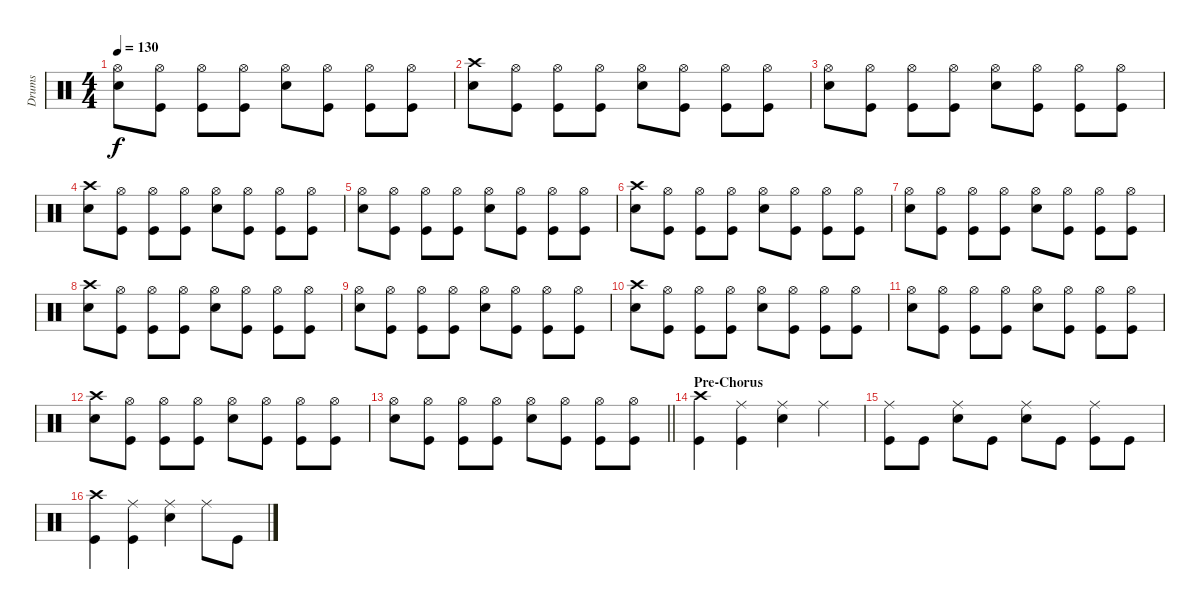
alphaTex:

\track ("Drums" "Drums") {instrument percussion}
\staff {score}
\articulation defaults
\ts (4 4)
\tempo 130
\clef neutral
\ks c
("Hi-Hat (open)" "Snare (hit) 2").8{dy f} ("Hi-Hat (open)" "Kick (hit)").8 ("Hi-Hat (open)" "Kick (hit)").8 ("Hi-Hat (open)" "Kick (hit)").8 ("Hi-Hat (open)" "Snare (hit) 2").8 ("Hi-Hat (open)" "Kick (hit)").8 ("Hi-Hat (open)" "Kick (hit)").8 ("Hi-Hat (open)" "Kick (hit)").8 |
("Crash high (hit)" "Snare (hit) 2").8 ("Hi-Hat (open)" "Kick (hit)").8 ("Hi-Hat (open)" "Kick (hit)").8 ("Hi-Hat (open)" "Kick (hit)").8 ("Hi-Hat (open)" "Snare (hit) 2").8 ("Hi-Hat (open)" "Kick (hit)").8 ("Hi-Hat (open)" "Kick (hit)").8 ("Hi-Hat (open)" "Kick (hit)").8 |
("Hi-Hat (open)" "Snare (hit) 2").8 ("Hi-Hat (open)" "Kick (hit)").8 ("Hi-Hat (open)" "Kick (hit)").8 ("Hi-Hat (open)" "Kick (hit)").8 ("Hi-Hat (open)" "Snare (hit) 2").8 ("Hi-Hat (open)" "Kick (hit)").8 ("Hi-Hat (open)" "Kick (hit)").8 ("Hi-Hat (open)" "Kick (hit)").8 |
("Crash high (hit)" "Snare (hit) 2").8 ("Hi-Hat (open)" "Kick (hit)").8 ("Hi-Hat (open)" "Kick (hit)").8 ("Hi-Hat (open)" "Kick (hit)").8 ("Hi-Hat (open)" "Snare (hit) 2").8 ("Hi-Hat (open)" "Kick (hit)").8 ("Hi-Hat (open)" "Kick (hit)").8 ("Hi-Hat (open)" "Kick (hit)").8 |
("Hi-Hat (open)" "Snare (hit) 2").8 ("Hi-Hat (open)" "Kick (hit)").8 ("Hi-Hat (open)" "Kick (hit)").8 ("Hi-Hat (open)" "Kick (hit)").8 ("Hi-Hat (open)" "Snare (hit) 2").8 ("Hi-Hat (open)" "Kick (hit)").8 ("Hi-Hat (open)" "Kick (hit)").8 ("Hi-Hat (open)" "Kick (hit)").8 |
("Crash high (hit)" "Snare (hit) 2").8 ("Hi-Hat (open)" "Kick (hit)").8 ("Hi-Hat (open)" "Kick (hit)").8 ("Hi-Hat (open)" "Kick (hit)").8 ("Hi-Hat (open)" "Snare (hit) 2").8 ("Hi-Hat (open)" "Kick (hit)").8 ("Hi-Hat (open)" "Kick (hit)").8 ("Hi-Hat (open)" "Kick (hit)").8 |
("Hi-Hat (open)" "Snare (hit) 2").8 ("Hi-Hat (open)" "Kick (hit)").8 ("Hi-Hat (open)" "Kick (hit)").8 ("Hi-Hat (open)" "Kick (hit)").8 ("Hi-Hat (open)" "Snare (hit) 2").8 ("Hi-Hat (open)" "Kick (hit)").8 ("Hi-Hat (open)" "Kick (hit)").8 ("Hi-Hat (open)" "Kick (hit)").8 |
("Crash high (hit)" "Snare (hit) 2").8 ("Hi-Hat (open)" "Kick (hit)").8 ("Hi-Hat (open)" "Kick (hit)").8 ("Hi-Hat (open)" "Kick (hit)").8 ("Hi-Hat (open)" "Snare (hit) 2").8 ("Hi-Hat (open)" "Kick (hit)").8 ("Hi-Hat (open)" "Kick (hit)").8 ("Hi-Hat (open)" "Kick (hit)").8 |
("Hi-Hat (open)" "Snare (hit) 2").8 ("Hi-Hat (open)" "Kick (hit)").8 ("Hi-Hat (open)" "Kick (hit)").8 ("Hi-Hat (open)" "Kick (hit)").8 ("Hi-Hat (open)" "Snare (hit) 2").8 ("Hi-Hat (open)" "Kick (hit)").8 ("Hi-Hat (open)" "Kick (hit)").8 ("Hi-Hat (open)" "Kick (hit)").8 |
("Crash high (hit)" "Snare (hit) 2").8 ("Hi-Hat (open)" "Kick (hit)").8 ("Hi-Hat (open)" "Kick (hit)").8 ("Hi-Hat (open)" "Kick (hit)").8 ("Hi-Hat (open)" "Snare (hit) 2").8 ("Hi-Hat (open)" "Kick (hit)").8 ("Hi-Hat (open)" "Kick (hit)").8 ("Hi-Hat (open)" "Kick (hit)").8 |
("Hi-Hat (open)" "Snare (hit) 2").8 ("Hi-Hat (open)" "Kick (hit)").8 ("Hi-Hat (open)" "Kick (hit)").8 ("Hi-Hat (open)" "Kick (hit)").8 ("Hi-Hat (open)" "Snare (hit) 2").8 ("Hi-Hat (open)" "Kick (hit)").8 ("Hi-Hat (open)" "Kick (hit)").8 ("Hi-Hat (open)" "Kick (hit)").8 |
("Crash high (hit)" "Snare (hit) 2").8 ("Hi-Hat (open)" "Kick (hit)").8 ("Hi-Hat (open)" "Kick (hit)").8 ("Hi-Hat (open)" "Kick (hit)").8 ("Hi-Hat (open)" "Snare (hit) 2").8 ("Hi-Hat (open)" "Kick (hit)").8 ("Hi-Hat (open)" "Kick (hit)").8 ("Hi-Hat (open)" "Kick (hit)").8 |
\barLineRight lightlight
("Hi-Hat (open)" "Snare (hit) 2").8 ("Hi-Hat (open)" "Kick (hit)").8 ("Hi-Hat (open)" "Kick (hit)").8 ("Hi-Hat (open)" "Kick (hit)").8 ("Hi-Hat (open)" "Snare (hit) 2").8 ("Hi-Hat (open)" "Kick (hit)").8 ("Hi-Hat (open)" "Kick (hit)").8 ("Hi-Hat (open)" "Kick (hit)").8 |
\section ("" "Pre-Chorus")
("Crash high (hit)" "Kick (hit)").4 ("Ride (middle)" "Kick (hit)").4 ("Ride (middle)" "Snare (hit) 2").4 "Ride (middle)".4 |
("Ride (middle)" "Kick (hit)").8 "Kick (hit)".8 ("Ride (middle)" "Snare (hit) 2").8 "Kick (hit)".8 ("Ride (middle)" "Snare (hit) 2").8 "Kick (hit)".8 ("Ride (middle)" "Kick (hit)").8 "Kick (hit)".8 |
("Crash high (hit)" "Kick (hit)").4 ("Ride (middle)" "Kick (hit)").4 ("Ride (middle)" "Snare (hit) 2").4 "Ride (middle)".8 "Kick (hit)".8
